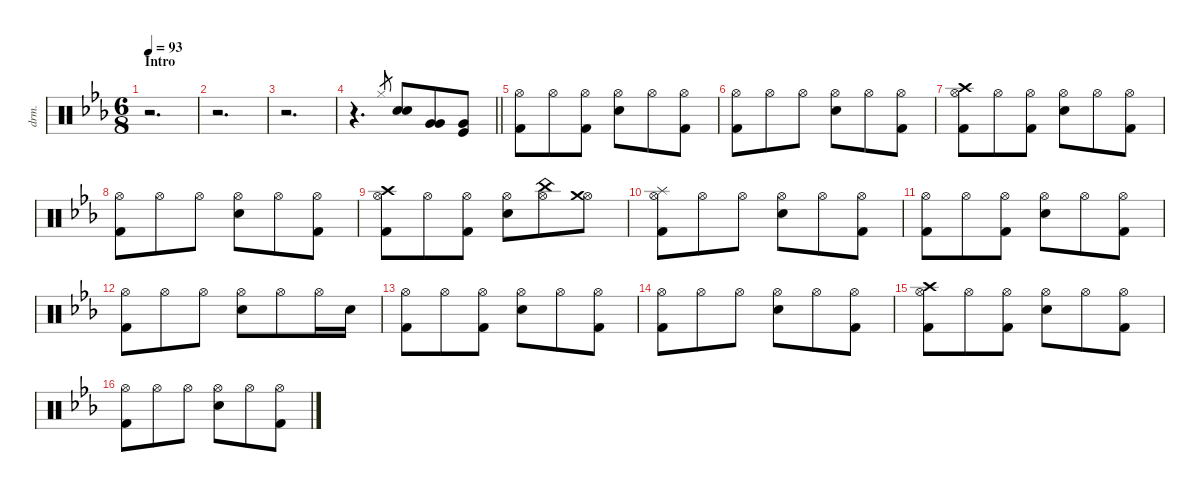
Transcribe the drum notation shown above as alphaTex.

\defaultSystemsLayout 4
\hideDynamics
\bracketExtendMode nobrackets
\otherSystemsTrackNameOrientation horizontal
\track ("Drums" "drm.") {defaultSystemsLayout 4 instrument percussion}
\staff {score}
\articulation defaults
\ts (6 8)
\beaming (8 3 3)
\section ("" "Intro")
\tempo 93
\clef neutral
\ks cminor
r.2{d dy fff beam Down} |
r.2{d beam Down} |
\tempo (93 hide)
r.2{d beam Down} |
\tempo (91.5 hide)
\barLineRight lightlight
r.4{d beam Down} "Hi-Hat (closed)"{acc forcenatural}.8{gr beam Up} ("Snare (hit) 2"{acc forcenatural} "Snare (hit) 2"{acc forcenatural}).8{beam Up} ("Very Low Tom (hit)"{acc forcenatural} "Very Low Tom (hit)"{acc forcenatural}).8{dy ff beam Up} ("Very Low Tom (hit)"{acc forcenatural} "Kick (hit)"{acc forcenatural}).8{dy fff beam Up} |
\tempo (93 hide)
("Hi-Hat (open)"{acc forcenatural} "Kick (hit) 2"{acc forcenatural}).8{dy ff beam Down} "Hi-Hat (open)"{acc forcenatural}.8{beam Down} ("Hi-Hat (open)"{acc forcenatural} "Kick (hit) 2"{acc forcenatural}).8{beam Down} ("Hi-Hat (open)"{acc forcenatural} "Snare (hit) 2"{acc forcenatural}).8{beam Down} "Hi-Hat (open)"{acc forcenatural}.8{beam Down} ("Hi-Hat (open)"{acc forcenatural} "Kick (hit) 2"{acc forcenatural}).8{beam Down} |
("Hi-Hat (open)"{acc forcenatural} "Kick (hit) 2"{acc forcenatural}).8{beam Down} "Hi-Hat (open)"{acc forcenatural}.8{beam Down} "Hi-Hat (open)"{acc forcenatural}.8{beam Down} ("Hi-Hat (open)"{acc forcenatural} "Snare (hit) 2"{acc forcenatural}).8{beam Down} "Hi-Hat (open)"{acc forcenatural}.8{beam Down} ("Hi-Hat (open)"{acc forcenatural} "Kick (hit) 2"{acc forcenatural}).8{beam Down} |
\tempo (93 hide)
("Hi-Hat (open)"{acc forcenatural} "Crash high (hit)"{acc forcenatural} "Kick (hit) 2"{acc forcenatural}).8{beam Down} "Hi-Hat (open)"{acc forcenatural}.8{beam Down} ("Hi-Hat (open)"{acc forcenatural} "Kick (hit) 2"{acc forcenatural}).8{beam Down} ("Hi-Hat (open)"{acc forcenatural} "Snare (hit) 2"{acc forcenatural}).8{beam Down} "Hi-Hat (open)"{acc forcenatural}.8{beam Down} ("Hi-Hat (open)"{acc forcenatural} "Kick (hit) 2"{acc forcenatural}).8{beam Down} |
\tempo (91.5 0.00625 hide)
("Hi-Hat (open)"{acc forcenatural} "Kick (hit) 2"{acc forcenatural}).8{beam Down} "Hi-Hat (open)"{acc forcenatural}.8{beam Down} "Hi-Hat (open)"{acc forcenatural}.8{beam Down} ("Hi-Hat (open)"{acc forcenatural} "Snare (hit) 2"{acc forcenatural}).8{beam Down} "Hi-Hat (open)"{acc forcenatural}.8{beam Down} ("Hi-Hat (open)"{acc forcenatural} "Kick (hit) 2"{acc forcenatural}).8{beam Down} |
\tempo (93 0.00625 hide)
("Hi-Hat (open)"{acc forcenatural} "Crash high (hit)"{acc forcenatural} "Kick (hit) 2"{acc forcenatural}).8{beam Down} "Hi-Hat (open)"{acc forcenatural}.8{beam Down} ("Hi-Hat (open)"{acc forcenatural} "Kick (hit) 2"{acc forcenatural}).8{beam Down} ("Hi-Hat (open)"{acc forcenatural} "Snare (hit) 2"{acc forcenatural}).8{beam Down} ("Hi-Hat (open)"{acc forcenatural} "China (hit)"{acc forcenatural}).8{dy fff beam Down} ("Hi-Hat (open)"{acc forcenatural} "Crash medium (hit)"{acc forcenatural}).8{dy ff beam Down} |
\tempo (93 0.99375 hide)
("Hi-Hat (open)"{acc forcenatural} "Splash (hit)"{acc forcenatural} "Kick (hit) 2"{acc forcenatural}).8{beam Down} "Hi-Hat (open)"{acc forcenatural}.8{beam Down} "Hi-Hat (open)"{acc forcenatural}.8{beam Down} ("Hi-Hat (open)"{acc forcenatural} "Snare (hit) 2"{acc forcenatural}).8{beam Down} "Hi-Hat (open)"{acc forcenatural}.8{beam Down} ("Hi-Hat (open)"{acc forcenatural} "Kick (hit) 2"{acc forcenatural}).8{beam Down} |
("Hi-Hat (open)"{acc forcenatural} "Kick (hit) 2"{acc forcenatural}).8{beam Down} "Hi-Hat (open)"{acc forcenatural}.8{beam Down} ("Hi-Hat (open)"{acc forcenatural} "Kick (hit) 2"{acc forcenatural}).8{beam Down} ("Hi-Hat (open)"{acc forcenatural} "Snare (hit) 2"{acc forcenatural}).8{beam Down} "Hi-Hat (open)"{acc forcenatural}.8{beam Down} ("Hi-Hat (open)"{acc forcenatural} "Kick (hit) 2"{acc forcenatural}).8{beam Down} |
\tempo (91.5 0.00625 hide)
("Hi-Hat (open)"{acc forcenatural} "Kick (hit) 2"{acc forcenatural}).8{beam Down} "Hi-Hat (open)"{acc forcenatural}.8{beam Down} "Hi-Hat (open)"{acc forcenatural}.8{beam Down} ("Hi-Hat (open)"{acc forcenatural} "Snare (hit) 2"{acc forcenatural}).8{beam Down} "Hi-Hat (open)"{acc forcenatural}.8{beam Down} "Hi-Hat (open)"{acc forcenatural}.16{beam Down} "Snare (hit) 2"{acc forcenatural}.16{dy fff beam Down} |
\tempo (93 hide)
("Hi-Hat (open)"{acc forcenatural} "Kick (hit) 2"{acc forcenatural}).8{dy ff beam Down} "Hi-Hat (open)"{acc forcenatural}.8{beam Down} ("Hi-Hat (open)"{acc forcenatural} "Kick (hit) 2"{acc forcenatural}).8{beam Down} ("Hi-Hat (open)"{acc forcenatural} "Snare (hit) 2"{acc forcenatural}).8{beam Down} "Hi-Hat (open)"{acc forcenatural}.8{beam Down} ("Hi-Hat (open)"{acc forcenatural} "Kick (hit) 2"{acc forcenatural}).8{beam Down} |
\tempo (93 0.96875 hide)
("Hi-Hat (open)"{acc forcenatural} "Kick (hit) 2"{acc forcenatural}).8{beam Down} "Hi-Hat (open)"{acc forcenatural}.8{beam Down} "Hi-Hat (open)"{acc forcenatural}.8{beam Down} ("Hi-Hat (open)"{acc forcenatural} "Snare (hit) 2"{acc forcenatural}).8{dy f beam Down} "Hi-Hat (open)"{acc forcenatural}.8{dy ff beam Down} ("Hi-Hat (open)"{acc forcenatural} "Kick (hit) 2"{acc forcenatural}).8{beam Down} |
("Hi-Hat (open)"{acc forcenatural} "Crash high (hit)"{acc forcenatural} "Kick (hit) 2"{acc forcenatural}).8{beam Down} "Hi-Hat (open)"{acc forcenatural}.8{beam Down} ("Hi-Hat (open)"{acc forcenatural} "Kick (hit) 2"{acc forcenatural}).8{beam Down} ("Hi-Hat (open)"{acc forcenatural} "Snare (hit) 2"{acc forcenatural}).8{beam Down} "Hi-Hat (open)"{acc forcenatural}.8{beam Down} ("Hi-Hat (open)"{acc forcenatural} "Kick (hit) 2"{acc forcenatural}).8{beam Down} |
\tempo (91.5 hide)
("Hi-Hat (open)"{acc forcenatural} "Kick (hit) 2"{acc forcenatural}).8{beam Down} "Hi-Hat (open)"{acc forcenatural}.8{beam Down} "Hi-Hat (open)"{acc forcenatural}.8{beam Down} ("Hi-Hat (open)"{acc forcenatural} "Snare (hit) 2"{acc forcenatural}).8{beam Down} "Hi-Hat (open)"{acc forcenatural}.8{beam Down} ("Hi-Hat (open)"{acc forcenatural} "Kick (hit) 2"{acc forcenatural}).8{beam Down}
